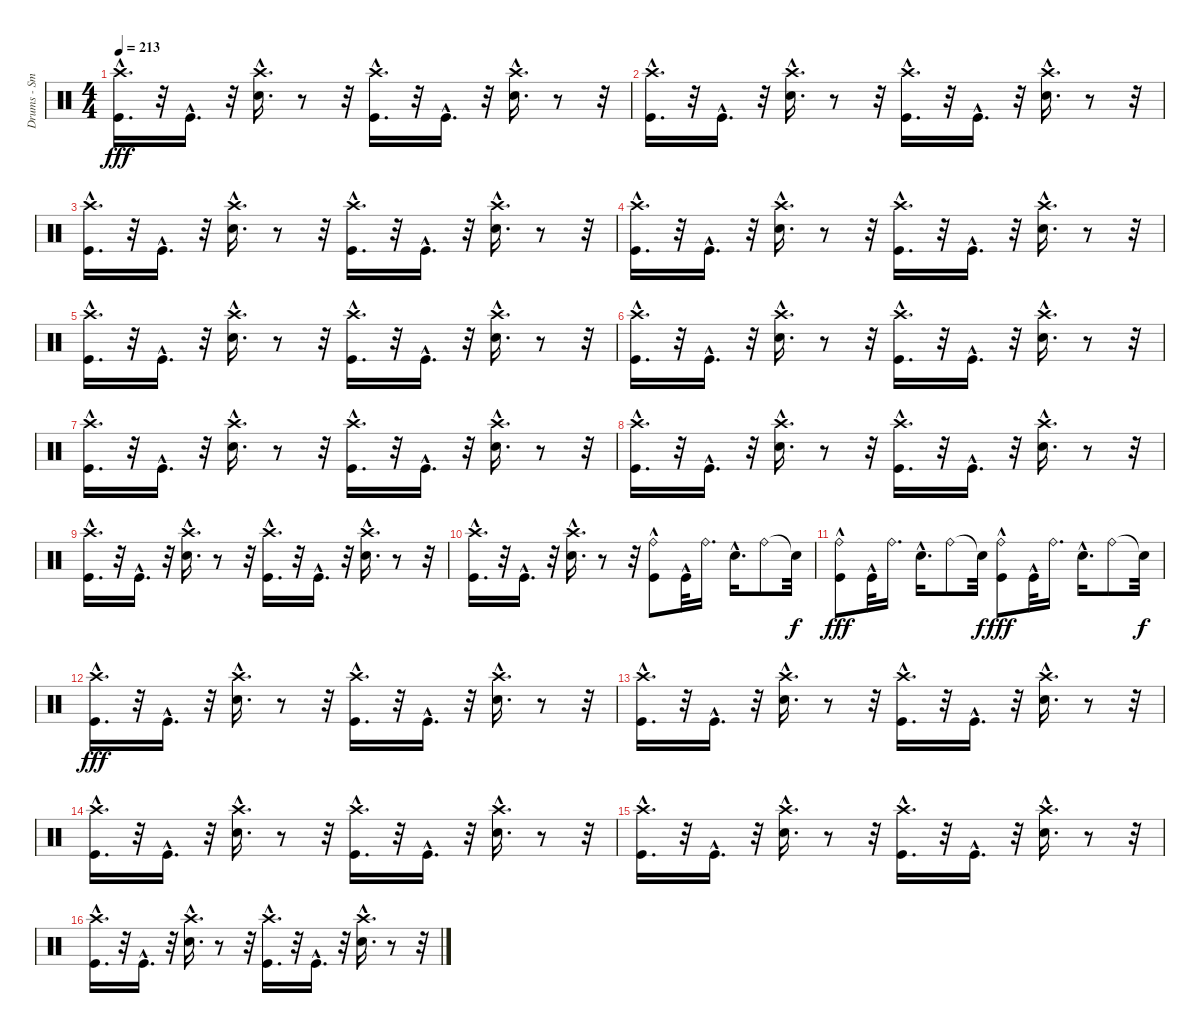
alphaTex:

\track ("Drums - Smelly" "Drums - Sm") {instrument percussion}
\staff {score}
\articulation defaults
\ts (4 4)
\tempo 213
\clef neutral
\ks c
("Crash high (hit)"{hac} "Kick (hit)"{hac}).16{d dy fff} r.32 "Kick (hit)"{hac}.16{d} r.32 ("Crash high (hit)"{hac} "Electric Snare (hit)"{hac}).16{d} r.8 r.32 ("Crash high (hit)"{hac} "Kick (hit)"{hac}).16{d} r.32 "Kick (hit)"{hac}.16{d} r.32 ("Electric Snare (hit)"{hac} "Crash high (hit)"{hac}).16{d} r.8 r.32 |
("Crash high (hit)"{hac} "Kick (hit)"{hac}).16{d} r.32 "Kick (hit)"{hac}.16{d} r.32 ("Crash high (hit)"{hac} "Electric Snare (hit)"{hac}).16{d} r.8 r.32 ("Crash high (hit)"{hac} "Kick (hit)"{hac}).16{d} r.32 "Kick (hit)"{hac}.16{d} r.32 ("Crash high (hit)"{hac} "Electric Snare (hit)"{hac}).16{d} r.8 r.32 |
("Crash high (hit)"{hac} "Kick (hit)"{hac}).16{d} r.32 "Kick (hit)"{hac}.16{d} r.32 ("Crash high (hit)"{hac} "Electric Snare (hit)"{hac}).16{d} r.8 r.32 ("Crash high (hit)"{hac} "Kick (hit)"{hac}).16{d} r.32 "Kick (hit)"{hac}.16{d} r.32 ("Crash high (hit)"{hac} "Electric Snare (hit)"{hac}).16{d} r.8 r.32 |
("Crash high (hit)"{hac} "Kick (hit)"{hac}).16{d} r.32 "Kick (hit)"{hac}.16{d} r.32 ("Crash high (hit)"{hac} "Electric Snare (hit)"{hac}).16{d} r.8 r.32 ("Kick (hit)"{hac} "Crash high (hit)"{hac}).16{d} r.32 "Kick (hit)"{hac}.16{d} r.32 ("Electric Snare (hit)"{hac} "Crash high (hit)"{hac}).16{d} r.8 r.32 |
("Crash high (hit)"{hac} "Kick (hit)"{hac}).16{d} r.32 "Kick (hit)"{hac}.16{d} r.32 ("Crash high (hit)"{hac} "Electric Snare (hit)"{hac}).16{d} r.8 r.32 ("Crash high (hit)"{hac} "Kick (hit)"{hac}).16{d} r.32 "Kick (hit)"{hac}.16{d} r.32 ("Electric Snare (hit)"{hac} "Crash high (hit)"{hac}).16{d} r.8 r.32 |
("Crash high (hit)"{hac} "Kick (hit)"{hac}).16{d} r.32 "Kick (hit)"{hac}.16{d} r.32 ("Crash high (hit)"{hac} "Electric Snare (hit)"{hac}).16{d} r.8 r.32 ("Kick (hit)"{hac} "Crash high (hit)"{hac}).16{d} r.32 "Kick (hit)"{hac}.16{d} r.32 ("Electric Snare (hit)"{hac} "Crash high (hit)"{hac}).16{d} r.8 r.32 |
("Crash high (hit)"{hac} "Kick (hit)"{hac}).16{d} r.32 "Kick (hit)"{hac}.16{d} r.32 ("Crash high (hit)"{hac} "Electric Snare (hit)"{hac}).16{d} r.8 r.32 ("Crash high (hit)"{hac} "Kick (hit)"{hac}).16{d} r.32 "Kick (hit)"{hac}.16{d} r.32 ("Electric Snare (hit)"{hac} "Crash high (hit)"{hac}).16{d} r.8 r.32 |
("Crash high (hit)"{hac} "Kick (hit)"{hac}).16{d} r.32 "Kick (hit)"{hac}.16{d} r.32 ("Crash high (hit)"{hac} "Electric Snare (hit)"{hac}).16{d} r.8 r.32 ("Kick (hit)"{hac} "Crash high (hit)"{hac}).16{d} r.32 "Kick (hit)"{hac}.16{d} r.32 ("Electric Snare (hit)"{hac} "Crash high (hit)"{hac}).16{d} r.8 r.32 |
("Crash high (hit)"{hac} "Kick (hit)"{hac}).16{d} r.32 "Kick (hit)"{hac}.16{d} r.32 ("Crash high (hit)"{hac} "Electric Snare (hit)"{hac}).16{d} r.8 r.32 ("Crash high (hit)"{hac} "Kick (hit)"{hac}).16{d} r.32 "Kick (hit)"{hac}.16{d} r.32 ("Electric Snare (hit)"{hac} "Crash high (hit)"{hac}).16{d} r.8 r.32 |
("Crash high (hit)"{hac} "Kick (hit)"{hac}).16{d} r.32 "Kick (hit)"{hac}.16{d} r.32 ("Crash high (hit)"{hac} "Electric Snare (hit)"{hac}).16{d} r.8 r.32 ("Kick (hit)"{hac} "Ride (bell)").8 "Kick (hit)"{hac}.32 "Ride (bell)".16{d} "Electric Snare (hit)"{hac}.16{d} "Ride (bell)".8 "Snare (hit)"{t}.32{dy f} |
("Ride (bell)" "Kick (hit)"{hac}).8{dy fff} "Kick (hit)"{hac}.32 "Ride (bell)".16{d} "Electric Snare (hit)"{hac}.16{d} "Ride (bell)".8 "Snare (hit)"{t}.32{dy f} ("Ride (bell)" "Kick (hit)"{hac}).8{dy fff} "Kick (hit)"{hac}.32 "Ride (bell)".16{d} "Electric Snare (hit)"{hac}.16{d} "Ride (bell)".8 "Snare (hit)"{t}.32{dy f} |
("Crash high (hit)"{hac} "Kick (hit)"{hac}).16{d dy fff} r.32 "Kick (hit)"{hac}.16{d} r.32 ("Crash high (hit)"{hac} "Electric Snare (hit)"{hac}).16{d} r.8 r.32 ("Kick (hit)"{hac} "Crash high (hit)"{hac}).16{d} r.32 "Kick (hit)"{hac}.16{d} r.32 ("Electric Snare (hit)"{hac} "Crash high (hit)"{hac}).16{d} r.8 r.32 |
("Crash high (hit)"{hac} "Kick (hit)"{hac}).16{d} r.32 "Kick (hit)"{hac}.16{d} r.32 ("Crash high (hit)"{hac} "Electric Snare (hit)"{hac}).16{d} r.8 r.32 ("Crash high (hit)"{hac} "Kick (hit)"{hac}).16{d} r.32 "Kick (hit)"{hac}.16{d} r.32 ("Electric Snare (hit)"{hac} "Crash high (hit)"{hac}).16{d} r.8 r.32 |
("Crash high (hit)"{hac} "Kick (hit)"{hac}).16{d} r.32 "Kick (hit)"{hac}.16{d} r.32 ("Crash high (hit)"{hac} "Electric Snare (hit)"{hac}).16{d} r.8 r.32 ("Kick (hit)"{hac} "Crash high (hit)"{hac}).16{d} r.32 "Kick (hit)"{hac}.16{d} r.32 ("Electric Snare (hit)"{hac} "Crash high (hit)"{hac}).16{d} r.8 r.32 |
("Crash high (hit)"{hac} "Kick (hit)"{hac}).16{d} r.32 "Kick (hit)"{hac}.16{d} r.32 ("Crash high (hit)"{hac} "Electric Snare (hit)"{hac}).16{d} r.8 r.32 ("Crash high (hit)"{hac} "Kick (hit)"{hac}).16{d} r.32 "Kick (hit)"{hac}.16{d} r.32 ("Electric Snare (hit)"{hac} "Crash high (hit)"{hac}).16{d} r.8 r.32 |
("Crash high (hit)"{hac} "Kick (hit)"{hac}).16{d} r.32 "Kick (hit)"{hac}.16{d} r.32 ("Crash high (hit)"{hac} "Electric Snare (hit)"{hac}).16{d} r.8 r.32 ("Kick (hit)"{hac} "Crash high (hit)"{hac}).16{d} r.32 "Kick (hit)"{hac}.16{d} r.32 ("Electric Snare (hit)"{hac} "Crash high (hit)"{hac}).16{d} r.8 r.32
